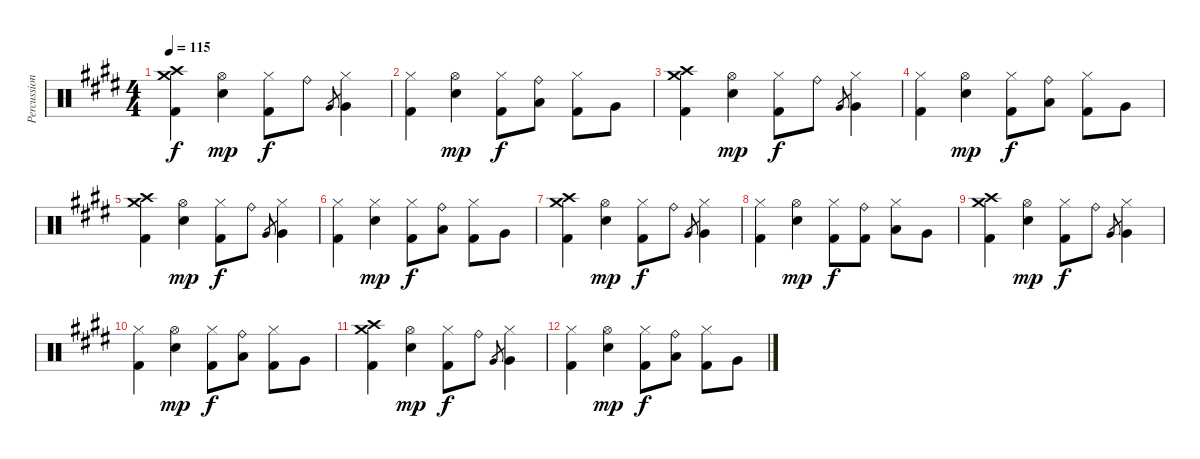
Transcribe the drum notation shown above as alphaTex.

\track ("Percussion" "Percussion") {instrument percussion}
\staff {score}
\articulation defaults
\ts (4 4)
\tempo 115
\clef neutral
\ks c#minor
("Crash high (hit)" "Crash medium (hit)" "Kick (hit) 2").4{dy f} ("Hi-Hat (open)" "Electric Snare (hit)").4{dy mp} ("Hi-Hat (closed)" "Kick (hit) 2").8{dy f} "Ride (bell)".8 "Very Low Tom (hit)".8{gr} ("Hi-Hat (closed)" "Very Low Tom (hit)").4 |
("Hi-Hat (closed)" "Kick (hit) 2").4 ("Hi-Hat (open)" "Electric Snare (hit)").4{dy mp} ("Hi-Hat (closed)" "Kick (hit) 2").8{dy f} ("Ride (bell)" "Low Tom (hit)").8 ("Hi-Hat (closed)" "Kick (hit) 2").8 "Very Low Tom (hit)".8 |
("Crash high (hit)" "Crash medium (hit)" "Kick (hit) 2").4 ("Hi-Hat (open)" "Electric Snare (hit)").4{dy mp} ("Hi-Hat (closed)" "Kick (hit) 2").8{dy f} "Ride (bell)".8 "Very Low Tom (hit)".8{gr} ("Hi-Hat (closed)" "Very Low Tom (hit)").4 |
("Hi-Hat (closed)" "Kick (hit) 2").4 ("Hi-Hat (open)" "Electric Snare (hit)").4{dy mp} ("Hi-Hat (closed)" "Kick (hit) 2").8{dy f} ("Ride (bell)" "Low Tom (hit)").8 ("Hi-Hat (closed)" "Kick (hit) 2").8 "Very Low Tom (hit)".8 |
("Crash high (hit)" "Crash medium (hit)" "Kick (hit) 2").4 ("Hi-Hat (open)" "Electric Snare (hit)").4{dy mp} ("Hi-Hat (closed)" "Kick (hit) 2").8{dy f} "Ride (bell)".8 "Very Low Tom (hit)".8{gr} ("Hi-Hat (closed)" "Very Low Tom (hit)").4 |
("Hi-Hat (closed)" "Kick (hit) 2").4 ("Hi-Hat (closed)" "Electric Snare (hit)").4{dy mp} ("Hi-Hat (closed)" "Kick (hit) 2").8{dy f} ("Ride (bell)" "Low Tom (hit)").8 ("Hi-Hat (closed)" "Kick (hit) 2").8 "Very Low Tom (hit)".8 |
("Crash high (hit)" "Crash medium (hit)" "Kick (hit) 2").4 ("Hi-Hat (open)" "Electric Snare (hit)").4{dy mp} ("Hi-Hat (closed)" "Kick (hit) 2").8{dy f} "Ride (bell)".8 "Very Low Tom (hit)".8{gr} ("Hi-Hat (closed)" "Very Low Tom (hit)").4 |
("Hi-Hat (closed)" "Kick (hit) 2").4 ("Hi-Hat (open)" "Electric Snare (hit)").4{dy mp} ("Hi-Hat (closed)" "Kick (hit) 2").8{dy f} ("Ride (bell)" "Kick (hit) 2").8 ("Hi-Hat (closed)" "Low Tom (hit)").8 "Very Low Tom (hit)".8 |
("Crash high (hit)" "Crash medium (hit)" "Kick (hit) 2").4{volume 12} ("Hi-Hat (open)" "Electric Snare (hit)").4{dy mp} ("Hi-Hat (closed)" "Kick (hit) 2").8{dy f} "Ride (bell)".8 "Very Low Tom (hit)".8{gr} ("Hi-Hat (closed)" "Very Low Tom (hit)").4 |
("Hi-Hat (closed)" "Kick (hit) 2").4{volume 7} ("Hi-Hat (open)" "Electric Snare (hit)").4{dy mp} ("Hi-Hat (closed)" "Kick (hit) 2").8{dy f} ("Ride (bell)" "Low Tom (hit)").8 ("Hi-Hat (closed)" "Kick (hit) 2").8 "Very Low Tom (hit)".8 |
("Crash high (hit)" "Crash medium (hit)" "Kick (hit) 2").4{volume 4} ("Hi-Hat (open)" "Electric Snare (hit)").4{dy mp} ("Hi-Hat (closed)" "Kick (hit) 2").8{dy f} "Ride (bell)".8 "Very Low Tom (hit)".8{gr} ("Hi-Hat (closed)" "Very Low Tom (hit)").4 |
("Hi-Hat (closed)" "Kick (hit) 2").4{volume 2} ("Hi-Hat (open)" "Electric Snare (hit)").4{dy mp} ("Hi-Hat (closed)" "Kick (hit) 2").8{dy f} ("Ride (bell)" "Low Tom (hit)").8 ("Hi-Hat (closed)" "Kick (hit) 2").8 "Very Low Tom (hit)".8
